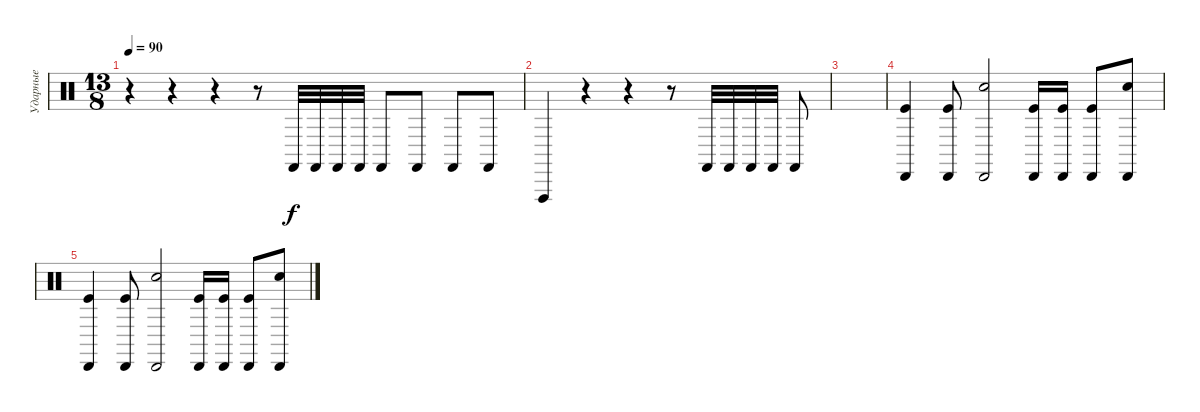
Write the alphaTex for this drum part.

\track ("Ударные" "Ударные") {instrument percussion}
\staff {score}
\articulation defaults
\ts (13 8)
\tempo 90
\clef neutral
\ks c
r.4{dy f} r.4 r.4 r.8 "Castanets (hit)".32 "Castanets (hit)".32 "Castanets (hit)".32 "Castanets (hit)".32 "Castanets (hit)".8 "Castanets (hit)".8 "Castanets (hit)".8 "Castanets (hit)".8 |
"Vibraslap (hit)".4 r.4 r.4 r.8 "Castanets (hit)".32 "Castanets (hit)".32 "Castanets (hit)".32 "Castanets (hit)".32 "Castanets (hit)".8 |
|
("Kick (hit)" "Cabasa (hit)").4 ("Kick (hit)" "Cabasa (hit)").8 ("Snare (hit) 2" "Cabasa (hit)").2 ("Kick (hit)" "Cabasa (hit)").16 ("Kick (hit)" "Cabasa (hit)").16 ("Kick (hit)" "Cabasa (hit)").8 ("Snare (hit) 2" "Cabasa (hit)").8 |
("Kick (hit)" "Cabasa (hit)").4 ("Kick (hit)" "Cabasa (hit)").8 ("Snare (hit) 2" "Cabasa (hit)").2 ("Kick (hit)" "Cabasa (hit)").16 ("Kick (hit)" "Cabasa (hit)").16 ("Kick (hit)" "Cabasa (hit)").8 ("Snare (hit) 2" "Cabasa (hit)").8
